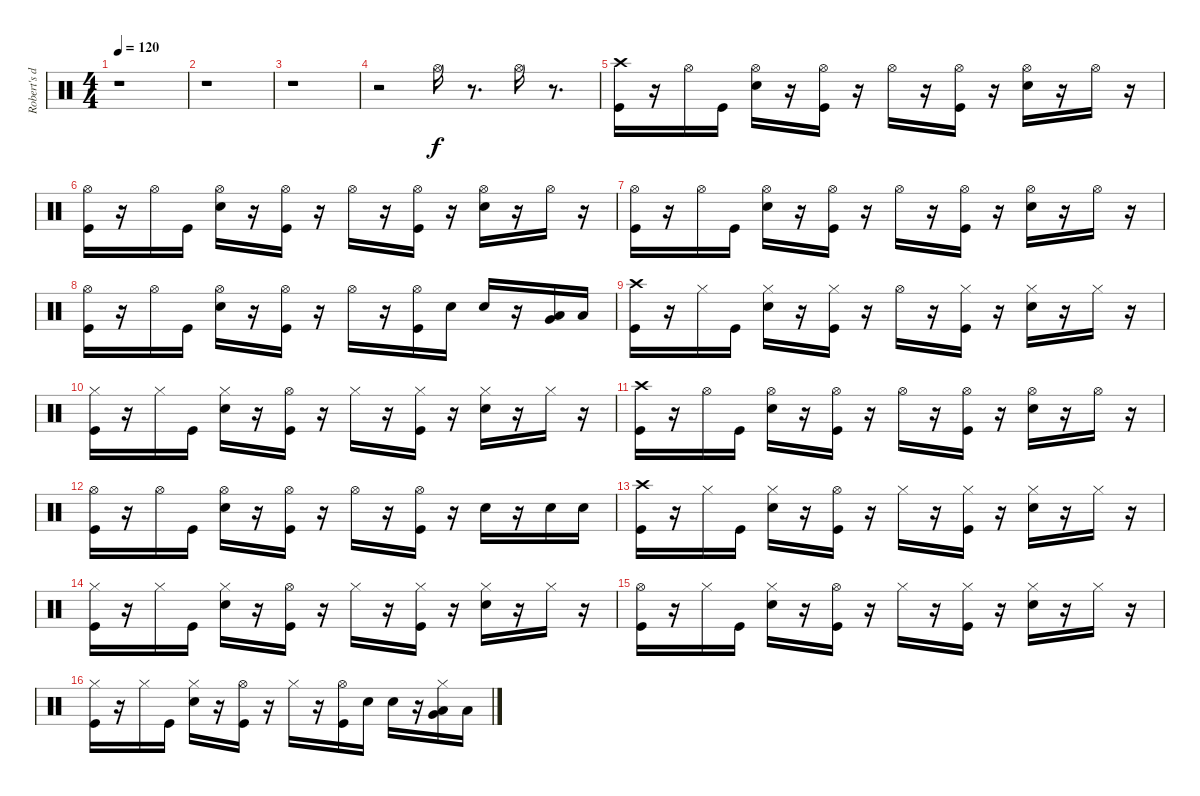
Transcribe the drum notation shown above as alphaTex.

\track ("Robert's drums" "Robert's d") {instrument percussion}
\staff {score}
\articulation defaults
\ts (4 4)
\tempo 120
\clef neutral
\ks c
r.1{dy f} |
r.1 |
r.1 |
r.2 "Hi-Hat (open)".16 r.8{d} "Hi-Hat (open)".16 r.8{d} |
("Crash high (hit)" "Kick (hit)").16 r.16 "Hi-Hat (open)".16 "Kick (hit)".16 ("Electric Snare (hit)" "Hi-Hat (open)").16 r.16 ("Kick (hit)" "Hi-Hat (open)").16 r.16 "Hi-Hat (open)".16 r.16 ("Hi-Hat (open)" "Kick (hit)").16 r.16 ("Hi-Hat (open)" "Electric Snare (hit)").16 r.16 "Hi-Hat (open)".16 r.16 |
("Kick (hit)" "Hi-Hat (open)").16 r.16 "Hi-Hat (open)".16 "Kick (hit)".16 ("Electric Snare (hit)" "Hi-Hat (open)").16 r.16 ("Hi-Hat (open)" "Kick (hit)").16 r.16 "Hi-Hat (open)".16 r.16 ("Hi-Hat (open)" "Kick (hit)").16 r.16 ("Electric Snare (hit)" "Hi-Hat (open)").16 r.16 "Hi-Hat (open)".16 r.16 |
("Hi-Hat (open)" "Kick (hit)").16 r.16 "Hi-Hat (open)".16 "Kick (hit)".16 ("Electric Snare (hit)" "Hi-Hat (open)").16 r.16 ("Hi-Hat (open)" "Kick (hit)").16 r.16 "Hi-Hat (open)".16 r.16 ("Kick (hit)" "Hi-Hat (open)").16 r.16 ("Electric Snare (hit)" "Hi-Hat (open)").16 r.16 "Hi-Hat (open)".16 r.16 |
("Hi-Hat (open)" "Kick (hit)").16 r.16 "Hi-Hat (open)".16 "Kick (hit)".16 ("Electric Snare (hit)" "Hi-Hat (open)").16 r.16 ("Hi-Hat (open)" "Kick (hit)").16 r.16 "Hi-Hat (open)".16 r.16 ("Hi-Hat (open)" "Kick (hit)").16 "Electric Snare (hit)".16 "Electric Snare (hit)".16 r.16 ("Very Low Tom (hit)" "Low Floor Tom (hit)").16 "Low Floor Tom (hit)".16 |
("Kick (hit)" "Crash high (hit)").16 r.16 "Hi-Hat (closed)".16 "Kick (hit)".16 ("Hi-Hat (closed)" "Electric Snare (hit)").16 r.16 ("Hi-Hat (closed)" "Kick (hit)").16 r.16 "Hi-Hat (open)".16 r.16 ("Kick (hit)" "Hi-Hat (closed)").16 r.16 ("Hi-Hat (closed)" "Electric Snare (hit)").16 r.16 "Hi-Hat (closed)".16 r.16 |
("Hi-Hat (closed)" "Kick (hit)").16 r.16 "Hi-Hat (closed)".16 "Kick (hit)".16 ("Hi-Hat (closed)" "Electric Snare (hit)").16 r.16 ("Hi-Hat (open)" "Kick (hit)").16 r.16 "Hi-Hat (closed)".16 r.16 ("Hi-Hat (closed)" "Kick (hit)").16 r.16 ("Hi-Hat (closed)" "Electric Snare (hit)").16 r.16 "Hi-Hat (closed)".16 r.16 |
("Crash high (hit)" "Kick (hit)").16 r.16 "Hi-Hat (open)".16 "Kick (hit)".16 ("Hi-Hat (open)" "Electric Snare (hit)").16 r.16 ("Hi-Hat (open)" "Kick (hit)").16 r.16 "Hi-Hat (open)".16 r.16 ("Hi-Hat (open)" "Kick (hit)").16 r.16 ("Hi-Hat (open)" "Electric Snare (hit)").16 r.16 "Hi-Hat (open)".16 r.16 |
("Hi-Hat (open)" "Kick (hit)").16 r.16 "Hi-Hat (open)".16 "Kick (hit)".16 ("Hi-Hat (open)" "Electric Snare (hit)").16 r.16 ("Hi-Hat (open)" "Kick (hit)").16 r.16 "Hi-Hat (open)".16 r.16 ("Hi-Hat (open)" "Kick (hit)").16 r.16 "Electric Snare (hit)".16 r.16 "Electric Snare (hit)".16 "Electric Snare (hit)".16 |
("Crash high (hit)" "Kick (hit)").16 r.16 "Hi-Hat (closed)".16 "Kick (hit)".16 ("Hi-Hat (closed)" "Electric Snare (hit)").16 r.16 ("Hi-Hat (open)" "Kick (hit)").16 r.16 "Hi-Hat (closed)".16 r.16 ("Kick (hit)" "Hi-Hat (closed)").16 r.16 ("Hi-Hat (closed)" "Electric Snare (hit)").16 r.16 "Hi-Hat (closed)".16 r.16 |
("Hi-Hat (closed)" "Kick (hit)").16 r.16 "Hi-Hat (closed)".16 "Kick (hit)".16 ("Hi-Hat (closed)" "Electric Snare (hit)").16 r.16 ("Kick (hit)" "Hi-Hat (open)").16 r.16 "Hi-Hat (closed)".16 r.16 ("Kick (hit)" "Hi-Hat (closed)").16 r.16 ("Electric Snare (hit)" "Hi-Hat (closed)").16 r.16 "Hi-Hat (closed)".16 r.16 |
("Hi-Hat (open)" "Kick (hit)").16 r.16 "Hi-Hat (closed)".16 "Kick (hit)".16 ("Electric Snare (hit)" "Hi-Hat (closed)").16 r.16 ("Kick (hit)" "Hi-Hat (open)").16 r.16 "Hi-Hat (closed)".16 r.16 ("Hi-Hat (closed)" "Kick (hit)").16 r.16 ("Electric Snare (hit)" "Hi-Hat (closed)").16 r.16 "Hi-Hat (closed)".16 r.16 |
("Hi-Hat (closed)" "Kick (hit)").16 r.16 "Hi-Hat (closed)".16 "Kick (hit)".16 ("Hi-Hat (closed)" "Electric Snare (hit)").16 r.16 ("Kick (hit)" "Hi-Hat (open)").16 r.16 "Hi-Hat (closed)".16 r.16 ("Kick (hit)" "Hi-Hat (open)").16 "Electric Snare (hit)".16 "Electric Snare (hit)".16 r.16 ("Very Low Tom (hit)" "Low Floor Tom (hit)" "Hi-Hat (closed)").16 "Low Floor Tom (hit)".16
